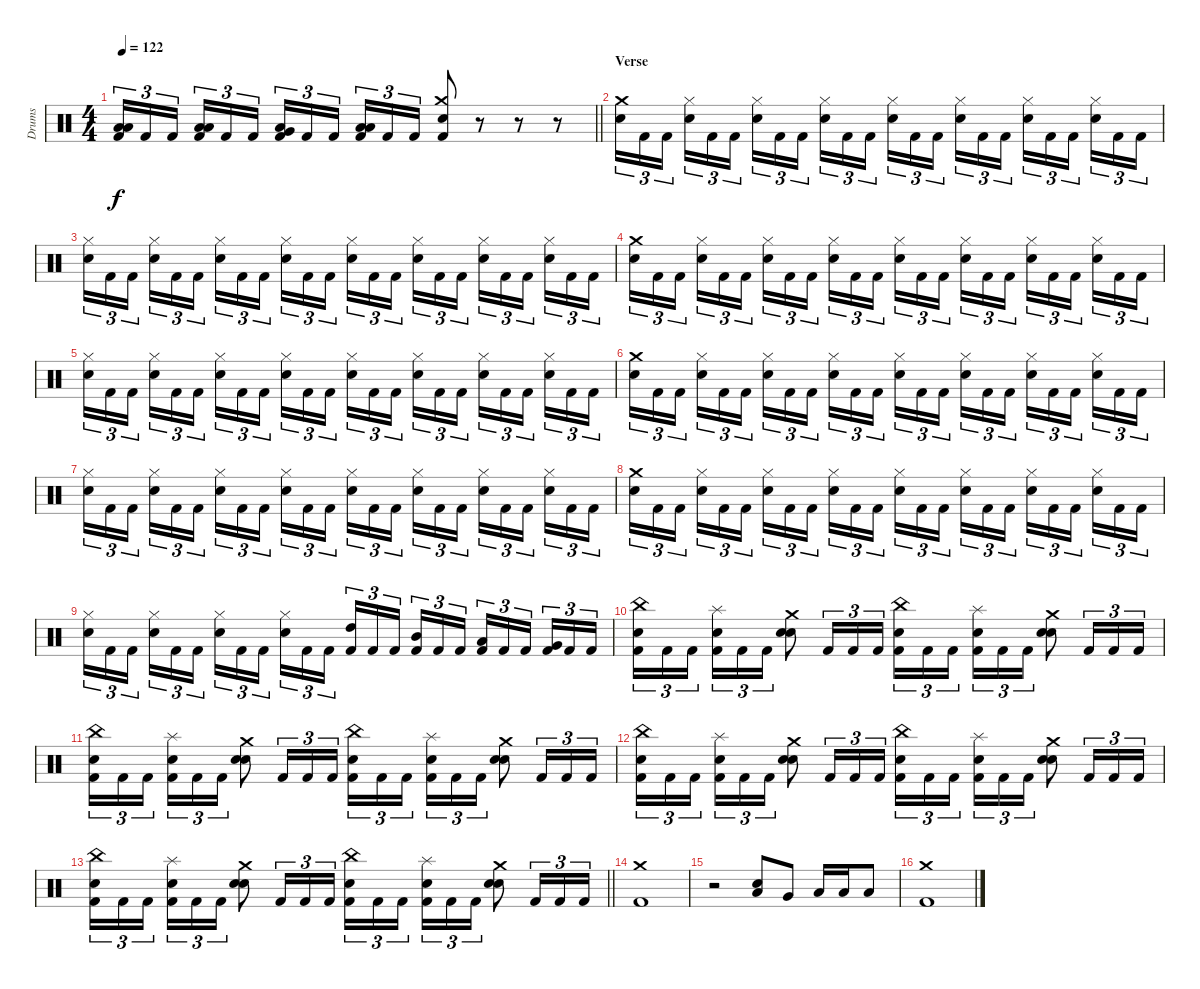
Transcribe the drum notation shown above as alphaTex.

\track ("Drums" "Drums") {instrument percussion}
\staff {score}
\articulation defaults
\ts (4 4)
\tempo 122
\clef neutral
\barLineRight lightlight
\ks c
("Low Tom (hit)" "Low Floor Tom (hit)" "Kick (hit) 2").16{tu (3 2) dy f} "Kick (hit) 2".16{tu (3 2)} "Kick (hit) 2".16{tu (3 2)} ("Low Tom (hit)" "Low Floor Tom (hit)" "Kick (hit) 2").16{tu (3 2)} "Kick (hit) 2".16{tu (3 2)} "Kick (hit) 2".16{tu (3 2)} ("Very Low Tom (hit)" "Low Floor Tom (hit)" "Kick (hit) 2").16{tu (3 2)} "Kick (hit) 2".16{tu (3 2)} "Kick (hit) 2".16{tu (3 2)} ("Low Floor Tom (hit)" "Low Floor Tom (hit)" "Kick (hit) 2").16{tu (3 2)} "Kick (hit) 2".16{tu (3 2)} "Kick (hit) 2".16{tu (3 2)} ("Crash medium (hit)" "Electric Snare (hit)" "Kick (hit) 2").8 r.8{volume 0} r.8 r.8 |
\section ("" "Verse")
("Crash medium (hit)" "Electric Snare (hit)").16{tu (3 2) volume 16} "Kick (hit) 2".16{tu (3 2)} "Kick (hit) 2".16{tu (3 2)} ("Hi-Hat (closed)" "Electric Snare (hit)").16{tu (3 2)} "Kick (hit) 2".16{tu (3 2)} "Kick (hit) 2".16{tu (3 2)} ("Hi-Hat (closed)" "Electric Snare (hit)").16{tu (3 2)} "Kick (hit) 2".16{tu (3 2)} "Kick (hit) 2".16{tu (3 2)} ("Hi-Hat (closed)" "Electric Snare (hit)").16{tu (3 2)} "Kick (hit) 2".16{tu (3 2)} "Kick (hit) 2".16{tu (3 2)} ("Hi-Hat (closed)" "Electric Snare (hit)").16{tu (3 2)} "Kick (hit) 2".16{tu (3 2)} "Kick (hit) 2".16{tu (3 2)} ("Hi-Hat (closed)" "Electric Snare (hit)").16{tu (3 2)} "Kick (hit) 2".16{tu (3 2)} "Kick (hit) 2".16{tu (3 2)} ("Hi-Hat (closed)" "Electric Snare (hit)").16{tu (3 2)} "Kick (hit) 2".16{tu (3 2)} "Kick (hit) 2".16{tu (3 2)} ("Hi-Hat (closed)" "Electric Snare (hit)").16{tu (3 2)} "Kick (hit) 2".16{tu (3 2)} "Kick (hit) 2".16{tu (3 2)} |
("Hi-Hat (closed)" "Electric Snare (hit)").16{tu (3 2)} "Kick (hit) 2".16{tu (3 2)} "Kick (hit) 2".16{tu (3 2)} ("Hi-Hat (closed)" "Electric Snare (hit)").16{tu (3 2)} "Kick (hit) 2".16{tu (3 2)} "Kick (hit) 2".16{tu (3 2)} ("Hi-Hat (closed)" "Electric Snare (hit)").16{tu (3 2)} "Kick (hit) 2".16{tu (3 2)} "Kick (hit) 2".16{tu (3 2)} ("Hi-Hat (closed)" "Electric Snare (hit)").16{tu (3 2)} "Kick (hit) 2".16{tu (3 2)} "Kick (hit) 2".16{tu (3 2)} ("Hi-Hat (closed)" "Electric Snare (hit)").16{tu (3 2)} "Kick (hit) 2".16{tu (3 2)} "Kick (hit) 2".16{tu (3 2)} ("Hi-Hat (closed)" "Electric Snare (hit)").16{tu (3 2)} "Kick (hit) 2".16{tu (3 2)} "Kick (hit) 2".16{tu (3 2)} ("Hi-Hat (closed)" "Electric Snare (hit)").16{tu (3 2)} "Kick (hit) 2".16{tu (3 2)} "Kick (hit) 2".16{tu (3 2)} ("Hi-Hat (closed)" "Electric Snare (hit)").16{tu (3 2)} "Kick (hit) 2".16{tu (3 2)} "Kick (hit) 2".16{tu (3 2)} |
("Crash medium (hit)" "Electric Snare (hit)").16{tu (3 2)} "Kick (hit) 2".16{tu (3 2)} "Kick (hit) 2".16{tu (3 2)} ("Hi-Hat (closed)" "Electric Snare (hit)").16{tu (3 2)} "Kick (hit) 2".16{tu (3 2)} "Kick (hit) 2".16{tu (3 2)} ("Hi-Hat (closed)" "Electric Snare (hit)").16{tu (3 2)} "Kick (hit) 2".16{tu (3 2)} "Kick (hit) 2".16{tu (3 2)} ("Hi-Hat (closed)" "Electric Snare (hit)").16{tu (3 2)} "Kick (hit) 2".16{tu (3 2)} "Kick (hit) 2".16{tu (3 2)} ("Hi-Hat (closed)" "Electric Snare (hit)").16{tu (3 2)} "Kick (hit) 2".16{tu (3 2)} "Kick (hit) 2".16{tu (3 2)} ("Hi-Hat (closed)" "Electric Snare (hit)").16{tu (3 2)} "Kick (hit) 2".16{tu (3 2)} "Kick (hit) 2".16{tu (3 2)} ("Hi-Hat (closed)" "Electric Snare (hit)").16{tu (3 2)} "Kick (hit) 2".16{tu (3 2)} "Kick (hit) 2".16{tu (3 2)} ("Hi-Hat (closed)" "Electric Snare (hit)").16{tu (3 2)} "Kick (hit) 2".16{tu (3 2)} "Kick (hit) 2".16{tu (3 2)} |
("Hi-Hat (closed)" "Electric Snare (hit)").16{tu (3 2)} "Kick (hit) 2".16{tu (3 2)} "Kick (hit) 2".16{tu (3 2)} ("Hi-Hat (closed)" "Electric Snare (hit)").16{tu (3 2)} "Kick (hit) 2".16{tu (3 2)} "Kick (hit) 2".16{tu (3 2)} ("Hi-Hat (closed)" "Electric Snare (hit)").16{tu (3 2)} "Kick (hit) 2".16{tu (3 2)} "Kick (hit) 2".16{tu (3 2)} ("Hi-Hat (closed)" "Electric Snare (hit)").16{tu (3 2)} "Kick (hit) 2".16{tu (3 2)} "Kick (hit) 2".16{tu (3 2)} ("Hi-Hat (closed)" "Electric Snare (hit)").16{tu (3 2)} "Kick (hit) 2".16{tu (3 2)} "Kick (hit) 2".16{tu (3 2)} ("Hi-Hat (closed)" "Electric Snare (hit)").16{tu (3 2)} "Kick (hit) 2".16{tu (3 2)} "Kick (hit) 2".16{tu (3 2)} ("Hi-Hat (closed)" "Electric Snare (hit)").16{tu (3 2)} "Kick (hit) 2".16{tu (3 2)} "Kick (hit) 2".16{tu (3 2)} ("Hi-Hat (closed)" "Electric Snare (hit)").16{tu (3 2)} "Kick (hit) 2".16{tu (3 2)} "Kick (hit) 2".16{tu (3 2)} |
("Crash medium (hit)" "Electric Snare (hit)").16{tu (3 2)} "Kick (hit) 2".16{tu (3 2)} "Kick (hit) 2".16{tu (3 2)} ("Hi-Hat (closed)" "Electric Snare (hit)").16{tu (3 2)} "Kick (hit) 2".16{tu (3 2)} "Kick (hit) 2".16{tu (3 2)} ("Hi-Hat (closed)" "Electric Snare (hit)").16{tu (3 2)} "Kick (hit) 2".16{tu (3 2)} "Kick (hit) 2".16{tu (3 2)} ("Hi-Hat (closed)" "Electric Snare (hit)").16{tu (3 2)} "Kick (hit) 2".16{tu (3 2)} "Kick (hit) 2".16{tu (3 2)} ("Hi-Hat (closed)" "Electric Snare (hit)").16{tu (3 2)} "Kick (hit) 2".16{tu (3 2)} "Kick (hit) 2".16{tu (3 2)} ("Hi-Hat (closed)" "Electric Snare (hit)").16{tu (3 2)} "Kick (hit) 2".16{tu (3 2)} "Kick (hit) 2".16{tu (3 2)} ("Hi-Hat (closed)" "Electric Snare (hit)").16{tu (3 2)} "Kick (hit) 2".16{tu (3 2)} "Kick (hit) 2".16{tu (3 2)} ("Hi-Hat (closed)" "Electric Snare (hit)").16{tu (3 2)} "Kick (hit) 2".16{tu (3 2)} "Kick (hit) 2".16{tu (3 2)} |
("Hi-Hat (closed)" "Electric Snare (hit)").16{tu (3 2)} "Kick (hit) 2".16{tu (3 2)} "Kick (hit) 2".16{tu (3 2)} ("Hi-Hat (closed)" "Electric Snare (hit)").16{tu (3 2)} "Kick (hit) 2".16{tu (3 2)} "Kick (hit) 2".16{tu (3 2)} ("Hi-Hat (closed)" "Electric Snare (hit)").16{tu (3 2)} "Kick (hit) 2".16{tu (3 2)} "Kick (hit) 2".16{tu (3 2)} ("Hi-Hat (closed)" "Electric Snare (hit)").16{tu (3 2)} "Kick (hit) 2".16{tu (3 2)} "Kick (hit) 2".16{tu (3 2)} ("Hi-Hat (closed)" "Electric Snare (hit)").16{tu (3 2)} "Kick (hit) 2".16{tu (3 2)} "Kick (hit) 2".16{tu (3 2)} ("Hi-Hat (closed)" "Electric Snare (hit)").16{tu (3 2)} "Kick (hit) 2".16{tu (3 2)} "Kick (hit) 2".16{tu (3 2)} ("Hi-Hat (closed)" "Electric Snare (hit)").16{tu (3 2)} "Kick (hit) 2".16{tu (3 2)} "Kick (hit) 2".16{tu (3 2)} ("Hi-Hat (closed)" "Electric Snare (hit)").16{tu (3 2)} "Kick (hit) 2".16{tu (3 2)} "Kick (hit) 2".16{tu (3 2)} |
("Crash medium (hit)" "Electric Snare (hit)").16{tu (3 2)} "Kick (hit) 2".16{tu (3 2)} "Kick (hit) 2".16{tu (3 2)} ("Hi-Hat (closed)" "Electric Snare (hit)").16{tu (3 2)} "Kick (hit) 2".16{tu (3 2)} "Kick (hit) 2".16{tu (3 2)} ("Hi-Hat (closed)" "Electric Snare (hit)").16{tu (3 2)} "Kick (hit) 2".16{tu (3 2)} "Kick (hit) 2".16{tu (3 2)} ("Hi-Hat (closed)" "Electric Snare (hit)").16{tu (3 2)} "Kick (hit) 2".16{tu (3 2)} "Kick (hit) 2".16{tu (3 2)} ("Hi-Hat (closed)" "Electric Snare (hit)").16{tu (3 2)} "Kick (hit) 2".16{tu (3 2)} "Kick (hit) 2".16{tu (3 2)} ("Hi-Hat (closed)" "Electric Snare (hit)").16{tu (3 2)} "Kick (hit) 2".16{tu (3 2)} "Kick (hit) 2".16{tu (3 2)} ("Hi-Hat (closed)" "Electric Snare (hit)").16{tu (3 2)} "Kick (hit) 2".16{tu (3 2)} "Kick (hit) 2".16{tu (3 2)} ("Hi-Hat (closed)" "Electric Snare (hit)").16{tu (3 2)} "Kick (hit) 2".16{tu (3 2)} "Kick (hit) 2".16{tu (3 2)} |
("Hi-Hat (closed)" "Electric Snare (hit)").16{tu (3 2)} "Kick (hit) 2".16{tu (3 2)} "Kick (hit) 2".16{tu (3 2)} ("Hi-Hat (closed)" "Electric Snare (hit)").16{tu (3 2)} "Kick (hit) 2".16{tu (3 2)} "Kick (hit) 2".16{tu (3 2)} ("Hi-Hat (closed)" "Electric Snare (hit)").16{tu (3 2)} "Kick (hit) 2".16{tu (3 2)} "Kick (hit) 2".16{tu (3 2)} ("Hi-Hat (closed)" "Electric Snare (hit)").16{tu (3 2)} "Kick (hit) 2".16{tu (3 2)} "Kick (hit) 2".16{tu (3 2)} ("High Tom (hit)" "Kick (hit) 2").16{tu (3 2)} "Kick (hit) 2".16{tu (3 2)} "Kick (hit) 2".16{tu (3 2)} ("Mid Tom (hit)" "Kick (hit) 2").16{tu (3 2)} "Kick (hit) 2".16{tu (3 2)} "Kick (hit) 2".16{tu (3 2)} ("Low Tom (hit)" "Kick (hit) 2").16{tu (3 2)} "Kick (hit) 2".16{tu (3 2)} "Kick (hit) 2".16{tu (3 2)} ("Very Low Tom (hit)" "Kick (hit) 2").16{tu (3 2)} "Kick (hit) 2".16{tu (3 2)} "Kick (hit) 2".16{tu (3 2)} |
("China (hit)" "Electric Snare (hit)" "Kick (hit) 2").16{tu (3 2)} "Kick (hit) 2".16{tu (3 2)} "Kick (hit) 2".16{tu (3 2)} ("Splash (hit)" "Electric Snare (hit)" "Kick (hit) 2").16{tu (3 2)} "Kick (hit) 2".16{tu (3 2)} "Kick (hit) 2".16{tu (3 2)} ("Crash medium (hit)" "Electric Snare (hit)" "Electric Snare (hit)").8 "Kick (hit) 2".16{tu (3 2)} "Kick (hit) 2".16{tu (3 2)} "Kick (hit) 2".16{tu (3 2)} ("China (hit)" "Electric Snare (hit)" "Kick (hit) 2").16{tu (3 2)} "Kick (hit) 2".16{tu (3 2)} "Kick (hit) 2".16{tu (3 2)} ("Splash (hit)" "Electric Snare (hit)" "Kick (hit) 2").16{tu (3 2)} "Kick (hit) 2".16{tu (3 2)} "Kick (hit) 2".16{tu (3 2)} ("Crash medium (hit)" "Electric Snare (hit)" "Electric Snare (hit)").8 "Kick (hit) 2".16{tu (3 2)} "Kick (hit) 2".16{tu (3 2)} "Kick (hit) 2".16{tu (3 2)} |
("China (hit)" "Electric Snare (hit)" "Kick (hit) 2").16{tu (3 2)} "Kick (hit) 2".16{tu (3 2)} "Kick (hit) 2".16{tu (3 2)} ("Splash (hit)" "Electric Snare (hit)" "Kick (hit) 2").16{tu (3 2)} "Kick (hit) 2".16{tu (3 2)} "Kick (hit) 2".16{tu (3 2)} ("Crash medium (hit)" "Electric Snare (hit)" "Electric Snare (hit)").8 "Kick (hit) 2".16{tu (3 2)} "Kick (hit) 2".16{tu (3 2)} "Kick (hit) 2".16{tu (3 2)} ("China (hit)" "Electric Snare (hit)" "Kick (hit) 2").16{tu (3 2)} "Kick (hit) 2".16{tu (3 2)} "Kick (hit) 2".16{tu (3 2)} ("Splash (hit)" "Electric Snare (hit)" "Kick (hit) 2").16{tu (3 2)} "Kick (hit) 2".16{tu (3 2)} "Kick (hit) 2".16{tu (3 2)} ("Crash medium (hit)" "Electric Snare (hit)" "Electric Snare (hit)").8 "Kick (hit) 2".16{tu (3 2)} "Kick (hit) 2".16{tu (3 2)} "Kick (hit) 2".16{tu (3 2)} |
("China (hit)" "Electric Snare (hit)" "Kick (hit) 2").16{tu (3 2)} "Kick (hit) 2".16{tu (3 2)} "Kick (hit) 2".16{tu (3 2)} ("Splash (hit)" "Electric Snare (hit)" "Kick (hit) 2").16{tu (3 2)} "Kick (hit) 2".16{tu (3 2)} "Kick (hit) 2".16{tu (3 2)} ("Crash medium (hit)" "Electric Snare (hit)" "Electric Snare (hit)").8 "Kick (hit) 2".16{tu (3 2)} "Kick (hit) 2".16{tu (3 2)} "Kick (hit) 2".16{tu (3 2)} ("China (hit)" "Electric Snare (hit)" "Kick (hit) 2").16{tu (3 2)} "Kick (hit) 2".16{tu (3 2)} "Kick (hit) 2".16{tu (3 2)} ("Splash (hit)" "Electric Snare (hit)" "Kick (hit) 2").16{tu (3 2)} "Kick (hit) 2".16{tu (3 2)} "Kick (hit) 2".16{tu (3 2)} ("Crash medium (hit)" "Electric Snare (hit)" "Electric Snare (hit)").8 "Kick (hit) 2".16{tu (3 2)} "Kick (hit) 2".16{tu (3 2)} "Kick (hit) 2".16{tu (3 2)} |
\barLineRight lightlight
("China (hit)" "Electric Snare (hit)" "Kick (hit) 2").16{tu (3 2)} "Kick (hit) 2".16{tu (3 2)} "Kick (hit) 2".16{tu (3 2)} ("Splash (hit)" "Electric Snare (hit)" "Kick (hit) 2").16{tu (3 2)} "Kick (hit) 2".16{tu (3 2)} "Kick (hit) 2".16{tu (3 2)} ("Crash medium (hit)" "Electric Snare (hit)" "Electric Snare (hit)").8 "Kick (hit) 2".16{tu (3 2)} "Kick (hit) 2".16{tu (3 2)} "Kick (hit) 2".16{tu (3 2)} ("China (hit)" "Electric Snare (hit)" "Kick (hit) 2").16{tu (3 2)} "Kick (hit) 2".16{tu (3 2)} "Kick (hit) 2".16{tu (3 2)} ("Splash (hit)" "Electric Snare (hit)" "Kick (hit) 2").16{tu (3 2)} "Kick (hit) 2".16{tu (3 2)} "Kick (hit) 2".16{tu (3 2)} ("Crash medium (hit)" "Electric Snare (hit)" "Electric Snare (hit)").8 "Kick (hit) 2".16{tu (3 2)} "Kick (hit) 2".16{tu (3 2)} "Kick (hit) 2".16{tu (3 2)} |
\section ("" "")
("Crash medium (hit)" "Kick (hit) 2").1 |
r.2 ("Low Tom (hit)" "Electric Snare (hit)").8 "Very Low Tom (hit)".8 "Low Tom (hit)".16 "Low Tom (hit)".16 "Low Tom (hit)".8 |
("Crash medium (hit)" "Kick (hit) 2").1
